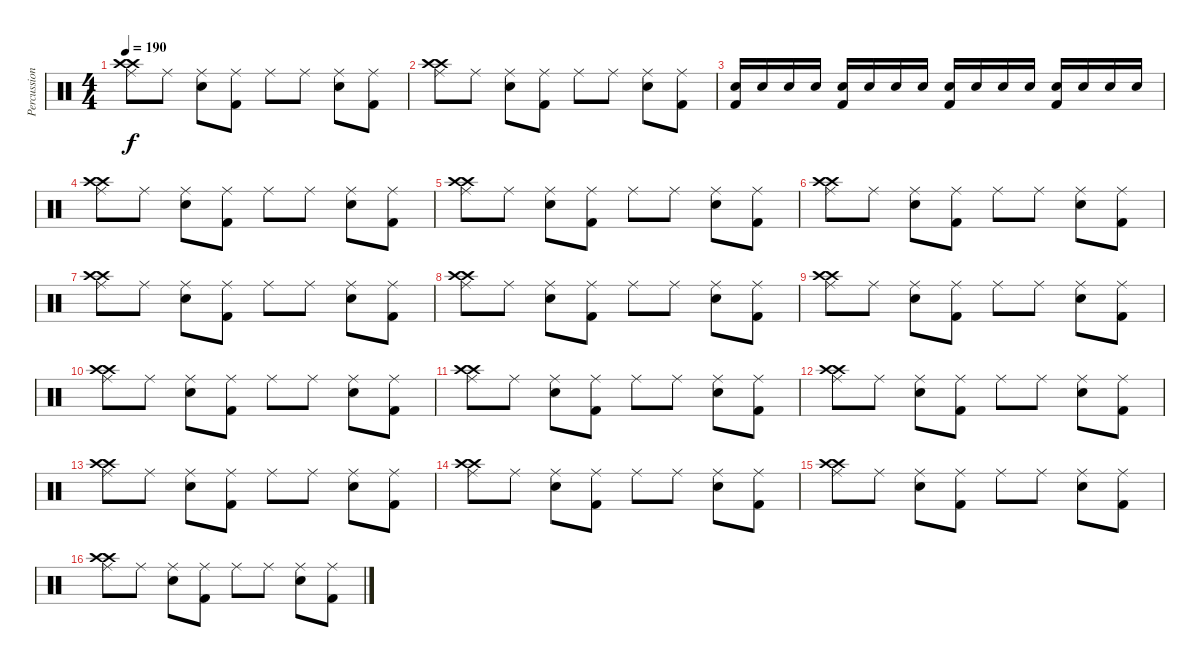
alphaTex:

\track ("Percussion" "Percussion") {instrument percussion}
\staff {score}
\articulation defaults
\ts (4 4)
\tempo 190
\clef neutral
\ks c
("Ride (middle)" "Crash high (hit)" "Crash high (hit)").8{dy f} "Ride (middle)".8 ("Ride (middle)" "Snare (hit) 2").8 ("Ride (middle)" "Kick (hit) 2").8 "Ride (middle)".8 "Ride (middle)".8 ("Ride (middle)" "Snare (hit) 2").8 ("Ride (middle)" "Kick (hit) 2").8 |
("Ride (middle)" "Crash high (hit)" "Crash high (hit)").8 "Ride (middle)".8 ("Ride (middle)" "Snare (hit) 2").8 ("Ride (middle)" "Kick (hit) 2").8 "Ride (middle)".8 "Ride (middle)".8 ("Ride (middle)" "Snare (hit) 2").8 ("Ride (middle)" "Kick (hit) 2").8 |
("Snare (hit) 2" "Kick (hit) 2").16 "Snare (hit) 2".16 "Snare (hit) 2".16 "Snare (hit) 2".16 ("Snare (hit) 2" "Kick (hit) 2").16 "Snare (hit) 2".16 "Snare (hit) 2".16 "Snare (hit) 2".16 ("Snare (hit) 2" "Kick (hit) 2").16 "Snare (hit) 2".16 "Snare (hit) 2".16 "Snare (hit) 2".16 ("Snare (hit) 2" "Kick (hit) 2").16 "Snare (hit) 2".16 "Snare (hit) 2".16 "Snare (hit) 2".16 |
("Ride (middle)" "Crash high (hit)" "Crash high (hit)").8 "Ride (middle)".8 ("Ride (middle)" "Snare (hit) 2").8 ("Ride (middle)" "Kick (hit) 2").8 "Ride (middle)".8 "Ride (middle)".8 ("Ride (middle)" "Snare (hit) 2").8 ("Ride (middle)" "Kick (hit) 2").8 |
("Ride (middle)" "Crash high (hit)" "Crash high (hit)").8 "Ride (middle)".8 ("Ride (middle)" "Snare (hit) 2").8 ("Ride (middle)" "Kick (hit) 2").8 "Ride (middle)".8 "Ride (middle)".8 ("Ride (middle)" "Snare (hit) 2").8 ("Ride (middle)" "Kick (hit) 2").8 |
("Ride (middle)" "Crash high (hit)" "Crash high (hit)").8 "Ride (middle)".8 ("Ride (middle)" "Snare (hit) 2").8 ("Ride (middle)" "Kick (hit) 2").8 "Ride (middle)".8 "Ride (middle)".8 ("Ride (middle)" "Snare (hit) 2").8 ("Ride (middle)" "Kick (hit) 2").8 |
("Ride (middle)" "Crash high (hit)" "Crash high (hit)").8 "Ride (middle)".8 ("Ride (middle)" "Snare (hit) 2").8 ("Ride (middle)" "Kick (hit) 2").8 "Ride (middle)".8 "Ride (middle)".8 ("Ride (middle)" "Snare (hit) 2").8 ("Ride (middle)" "Kick (hit) 2").8 |
("Ride (middle)" "Crash high (hit)" "Crash high (hit)").8 "Ride (middle)".8 ("Ride (middle)" "Snare (hit) 2").8 ("Ride (middle)" "Kick (hit) 2").8 "Ride (middle)".8 "Ride (middle)".8 ("Ride (middle)" "Snare (hit) 2").8 ("Ride (middle)" "Kick (hit) 2").8 |
("Ride (middle)" "Crash high (hit)" "Crash high (hit)").8 "Ride (middle)".8 ("Ride (middle)" "Snare (hit) 2").8 ("Ride (middle)" "Kick (hit) 2").8 "Ride (middle)".8 "Ride (middle)".8 ("Ride (middle)" "Snare (hit) 2").8 ("Ride (middle)" "Kick (hit) 2").8 |
("Ride (middle)" "Crash high (hit)" "Crash high (hit)").8 "Ride (middle)".8 ("Ride (middle)" "Snare (hit) 2").8 ("Ride (middle)" "Kick (hit) 2").8 "Ride (middle)".8 "Ride (middle)".8 ("Ride (middle)" "Snare (hit) 2").8 ("Ride (middle)" "Kick (hit) 2").8 |
("Ride (middle)" "Crash high (hit)" "Crash high (hit)").8 "Ride (middle)".8 ("Ride (middle)" "Snare (hit) 2").8 ("Ride (middle)" "Kick (hit) 2").8 "Ride (middle)".8 "Ride (middle)".8 ("Ride (middle)" "Snare (hit) 2").8 ("Ride (middle)" "Kick (hit) 2").8 |
("Ride (middle)" "Crash high (hit)" "Crash high (hit)").8 "Ride (middle)".8 ("Ride (middle)" "Snare (hit) 2").8 ("Ride (middle)" "Kick (hit) 2").8 "Ride (middle)".8 "Ride (middle)".8 ("Ride (middle)" "Snare (hit) 2").8 ("Ride (middle)" "Kick (hit) 2").8 |
("Ride (middle)" "Crash high (hit)" "Crash high (hit)").8 "Ride (middle)".8 ("Ride (middle)" "Snare (hit) 2").8 ("Ride (middle)" "Kick (hit) 2").8 "Ride (middle)".8 "Ride (middle)".8 ("Ride (middle)" "Snare (hit) 2").8 ("Ride (middle)" "Kick (hit) 2").8 |
("Ride (middle)" "Crash high (hit)" "Crash high (hit)").8 "Ride (middle)".8 ("Ride (middle)" "Snare (hit) 2").8 ("Ride (middle)" "Kick (hit) 2").8 "Ride (middle)".8 "Ride (middle)".8 ("Ride (middle)" "Snare (hit) 2").8 ("Ride (middle)" "Kick (hit) 2").8 |
("Ride (middle)" "Crash high (hit)" "Crash high (hit)").8 "Ride (middle)".8 ("Ride (middle)" "Snare (hit) 2").8 ("Ride (middle)" "Kick (hit) 2").8 "Ride (middle)".8 "Ride (middle)".8 ("Ride (middle)" "Snare (hit) 2").8 ("Ride (middle)" "Kick (hit) 2").8 |
("Ride (middle)" "Crash high (hit)" "Crash high (hit)").8 "Ride (middle)".8 ("Ride (middle)" "Snare (hit) 2").8 ("Ride (middle)" "Kick (hit) 2").8 "Ride (middle)".8 "Ride (middle)".8 ("Ride (middle)" "Snare (hit) 2").8 ("Ride (middle)" "Kick (hit) 2").8
